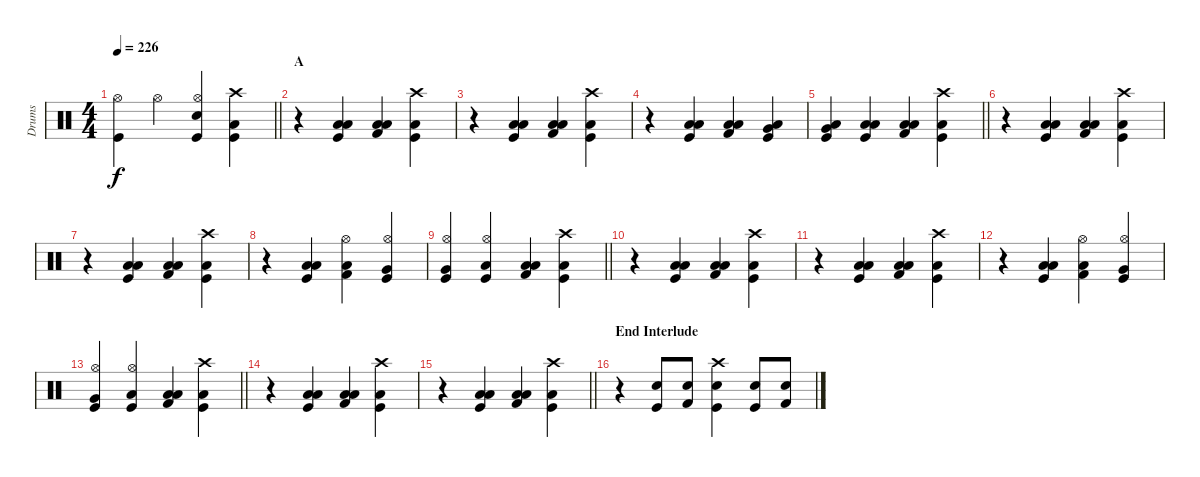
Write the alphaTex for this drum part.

\track ("Drums" "Drums") {instrument percussion}
\staff {score}
\articulation defaults
\ts (4 4)
\tempo 226
\clef neutral
\barLineRight lightlight
\ks c
("Kick (hit)" "Hi-Hat (open)").4{dy f} "Hi-Hat (open)".4 ("Kick (hit)" "Snare (hit) 2" "Hi-Hat (open)").4 ("Kick (hit)" "Low Floor Tom (hit)" "Crash high (hit)").4 |
\section ("" "A")
r.4 ("Kick (hit)" "Low Floor Tom (hit)" "Low Tom (hit)").4 ("Kick (hit) 2" "Low Floor Tom (hit)" "Low Tom (hit)").4 ("Kick (hit)" "Low Floor Tom (hit)" "Crash high (hit)").4 |
r.4 ("Kick (hit)" "Low Floor Tom (hit)" "Low Tom (hit)").4 ("Kick (hit) 2" "Low Floor Tom (hit)" "Low Tom (hit)").4 ("Kick (hit)" "Low Floor Tom (hit)" "Crash high (hit)").4 |
r.4 ("Kick (hit)" "Low Floor Tom (hit)" "Low Tom (hit)").4 ("Kick (hit) 2" "Low Floor Tom (hit)" "Low Tom (hit)").4 ("Kick (hit)" "Low Floor Tom (hit)" "Very Low Tom (hit)").4 |
\barLineRight lightlight
("Kick (hit)" "Low Floor Tom (hit)" "Very Low Tom (hit)").4 ("Kick (hit)" "Low Floor Tom (hit)" "Low Tom (hit)").4 ("Kick (hit) 2" "Low Floor Tom (hit)" "Low Tom (hit)").4 ("Kick (hit)" "Low Floor Tom (hit)" "Crash high (hit)").4 |
r.4 ("Kick (hit)" "Low Floor Tom (hit)" "Low Tom (hit)").4 ("Kick (hit) 2" "Low Floor Tom (hit)" "Low Tom (hit)").4 ("Kick (hit)" "Low Floor Tom (hit)" "Crash high (hit)").4 |
r.4 ("Kick (hit)" "Low Floor Tom (hit)" "Low Tom (hit)").4 ("Kick (hit) 2" "Low Floor Tom (hit)" "Low Tom (hit)").4 ("Kick (hit)" "Low Floor Tom (hit)" "Crash high (hit)").4 |
r.4 ("Kick (hit)" "Low Floor Tom (hit)" "Low Tom (hit)").4 ("Kick (hit) 2" "Hi-Hat (open)" "Low Tom (hit)").4 ("Kick (hit)" "Hi-Hat (open)" "Very Low Tom (hit)").4 |
\barLineRight lightlight
("Kick (hit)" "Hi-Hat (open)" "Very Low Tom (hit)").4 ("Kick (hit)" "Hi-Hat (open)" "Low Tom (hit)").4 ("Kick (hit) 2" "Low Floor Tom (hit)" "Low Tom (hit)").4 ("Kick (hit)" "Low Floor Tom (hit)" "Crash high (hit)").4 |
r.4 ("Kick (hit)" "Low Floor Tom (hit)" "Low Tom (hit)").4 ("Kick (hit) 2" "Low Floor Tom (hit)" "Low Tom (hit)").4 ("Kick (hit)" "Low Floor Tom (hit)" "Crash high (hit)").4 |
r.4 ("Kick (hit)" "Low Floor Tom (hit)" "Low Tom (hit)").4 ("Kick (hit) 2" "Low Floor Tom (hit)" "Low Tom (hit)").4 ("Kick (hit)" "Low Floor Tom (hit)" "Crash high (hit)").4 |
r.4 ("Kick (hit)" "Low Floor Tom (hit)" "Low Tom (hit)").4 ("Kick (hit) 2" "Hi-Hat (open)" "Low Tom (hit)").4 ("Kick (hit)" "Hi-Hat (open)" "Very Low Tom (hit)").4 |
\barLineRight lightlight
("Kick (hit)" "Hi-Hat (open)" "Very Low Tom (hit)").4 ("Kick (hit)" "Hi-Hat (open)" "Low Tom (hit)").4 ("Kick (hit) 2" "Low Floor Tom (hit)" "Low Tom (hit)").4 ("Kick (hit)" "Low Floor Tom (hit)" "Crash high (hit)").4 |
r.4 ("Kick (hit)" "Low Floor Tom (hit)" "Low Tom (hit)").4 ("Kick (hit) 2" "Low Floor Tom (hit)" "Low Tom (hit)").4 ("Kick (hit)" "Low Floor Tom (hit)" "Crash high (hit)").4 |
\barLineRight lightlight
r.4 ("Kick (hit)" "Low Floor Tom (hit)" "Low Tom (hit)").4 ("Kick (hit) 2" "Low Floor Tom (hit)" "Low Tom (hit)").4 ("Kick (hit)" "Low Floor Tom (hit)" "Crash high (hit)").4 |
\section ("" "End Interlude")
r.4 ("Kick (hit)" "Snare (hit) 2").8 ("Kick (hit) 2" "Electric Snare (hit)").8 ("Kick (hit)" "Snare (hit) 2" "Crash high (hit)").4 ("Kick (hit)" "Snare (hit) 2").8 ("Kick (hit) 2" "Electric Snare (hit)").8
